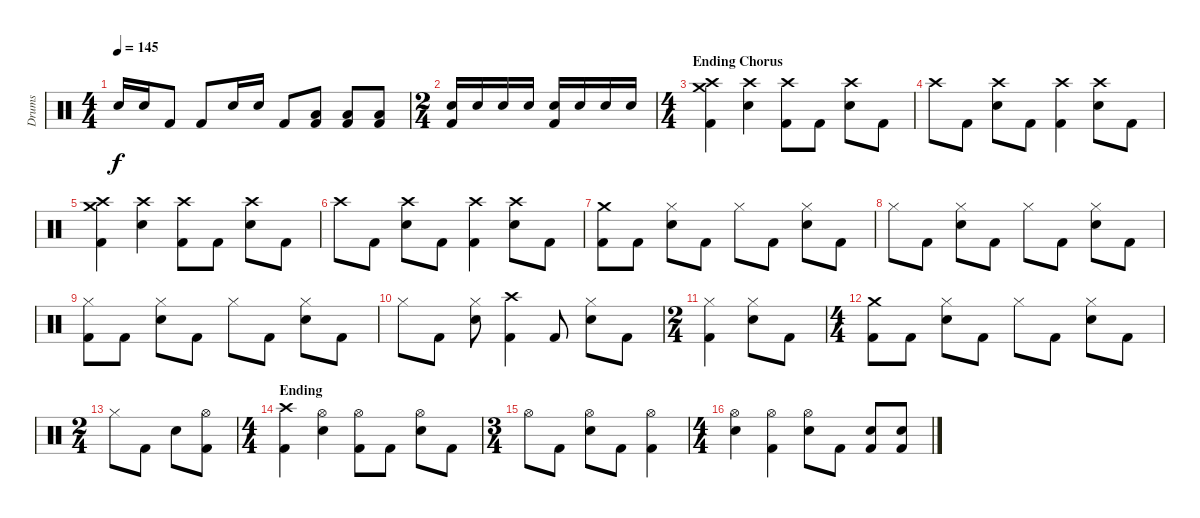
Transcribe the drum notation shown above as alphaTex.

\track ("Drums" "Drums") {instrument percussion}
\staff {score}
\articulation defaults
\ts (4 4)
\tempo 145
\clef neutral
\ks c "Snare (hit) 2".16{dy f} "Snare (hit) 2".16 "Kick (hit) 2".8 "Kick (hit) 2".8 "Snare (hit) 2".16 "Snare (hit) 2".16 "Kick (hit) 2".8
("Low Floor Tom (hit)" "Kick (hit) 2").8 ("Low Floor Tom (hit)" "Kick (hit) 2").8 ("Low Floor Tom (hit)" "Kick (hit) 2").8 |
\ts (2 4)
("Snare (hit) 2" "Kick (hit) 2").16 "Snare (hit) 2".16 "Snare (hit) 2".16 "Snare (hit) 2".16 ("Snare (hit) 2" "Kick (hit) 2").16 "Snare (hit) 2".16 "Snare (hit) 2".16 "Snare (hit) 2".16 |
\ts (4 4)
\section ("" "Ending Chorus")
("Crash high (hit)" "Crash medium (hit)" "Kick (hit) 2").4 ("Crash high (hit)" "Snare (hit) 2").4 ("Crash high (hit)" "Kick (hit) 2").8 "Kick (hit) 2".8 ("Crash high (hit)" "Snare (hit) 2").8 "Kick (hit) 2".8 |
"Crash high (hit)".8 "Kick (hit) 2".8 ("Crash high (hit)" "Snare (hit) 2").8 "Kick (hit) 2".8 ("Crash high (hit)" "Kick (hit) 2").4 ("Crash high (hit)" "Snare (hit) 2").8 "Kick (hit) 2".8 |
("Crash high (hit)" "Crash medium (hit)" "Kick (hit) 2").4 ("Crash high (hit)" "Snare (hit) 2").4 ("Crash high (hit)" "Kick (hit) 2").8 "Kick (hit) 2".8 ("Crash high (hit)" "Snare (hit) 2").8 "Kick (hit) 2".8 |
"Crash high (hit)".8 "Kick (hit) 2".8 ("Crash high (hit)" "Snare (hit) 2").8 "Kick (hit) 2".8 ("Crash high (hit)" "Kick (hit) 2").4 ("Crash high (hit)" "Snare (hit) 2").8 "Kick (hit) 2".8 |
("Crash medium (hit)" "Kick (hit) 2").8 "Kick (hit) 2".8 ("Hi-Hat (closed)" "Snare (hit) 2").8 "Kick (hit) 2".8 "Hi-Hat (closed)".8 "Kick (hit) 2".8 ("Hi-Hat (closed)" "Snare (hit) 2").8 "Kick (hit) 2".8 |
"Hi-Hat (closed)".8 "Kick (hit) 2".8 ("Hi-Hat (closed)" "Snare (hit) 2").8 "Kick (hit) 2".8 "Hi-Hat (closed)".8 "Kick (hit) 2".8 ("Hi-Hat (closed)" "Snare (hit) 2").8 "Kick (hit) 2".8 |
("Hi-Hat (closed)" "Kick (hit) 2").8 "Kick (hit) 2".8 ("Hi-Hat (closed)" "Snare (hit) 2").8 "Kick (hit) 2".8 "Hi-Hat (closed)".8 "Kick (hit) 2".8 ("Hi-Hat (closed)" "Snare (hit) 2").8 "Kick (hit) 2".8 |
"Hi-Hat (closed)".8 "Kick (hit) 2".8 ("Hi-Hat (closed)" "Snare (hit) 2").8 ("Crash high (hit)" "Kick (hit) 2").4 "Kick (hit) 2".8 ("Hi-Hat (closed)" "Snare (hit) 2").8 "Kick (hit) 2".8 |
\ts (2 4)
("Hi-Hat (closed)" "Kick (hit) 2").4 ("Hi-Hat (closed)" "Snare (hit) 2").8 "Kick (hit) 2".8 |
\ts (4 4)
("Crash medium (hit)" "Kick (hit) 2").8 "Kick (hit) 2".8 ("Hi-Hat (closed)" "Snare (hit) 2").8 "Kick (hit) 2".8 "Hi-Hat (closed)".8 "Kick (hit) 2".8 ("Hi-Hat (closed)" "Snare (hit) 2").8 "Kick (hit) 2".8 |
\ts (2 4)
"Hi-Hat (closed)".8 "Kick (hit) 2".8 "Snare (hit) 2".8 ("Hi-Hat (open)" "Kick (hit) 2").8 |
\ts (4 4)
\section ("" "Ending")
("Crash high (hit)" "Kick (hit) 2").4 ("Hi-Hat (open)" "Snare (hit) 2").4 ("Hi-Hat (open)" "Kick (hit) 2").8 "Kick (hit) 2".8 ("Hi-Hat (open)" "Snare (hit) 2").8 "Kick (hit) 2".8 |
\ts (3 4)
"Hi-Hat (open)".8 "Kick (hit) 2".8 ("Hi-Hat (open)" "Snare (hit) 2").8 "Kick (hit) 2".8 ("Hi-Hat (open)" "Kick (hit) 2").4 |
\ts (4 4)
("Hi-Hat (open)" "Snare (hit) 2").4 ("Hi-Hat (open)" "Kick (hit) 2").4 ("Hi-Hat (open)" "Snare (hit) 2").8 "Kick (hit) 2".8 ("Snare (hit) 2" "Kick (hit) 2").8 ("Snare (hit) 2" "Kick (hit) 2").8
